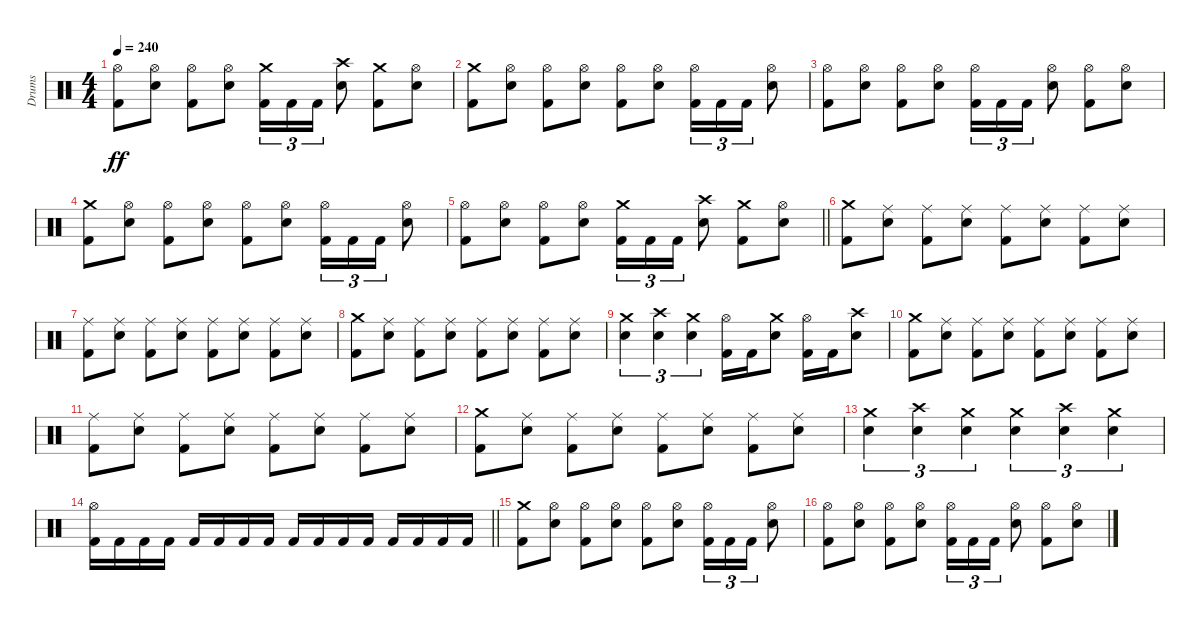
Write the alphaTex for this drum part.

\track ("Drums" "Drums") {instrument percussion}
\staff {score}
\articulation defaults
\ts (4 4)
\tempo 240
\clef neutral
\ks c
("Hi-Hat (open)" "Kick (hit) 2").8{dy ff} ("Hi-Hat (open)" "Snare (hit) 2").8 ("Hi-Hat (open)" "Kick (hit) 2").8 ("Hi-Hat (open)" "Snare (hit) 2").8 ("Crash medium (hit)" "Kick (hit) 2").16{tu (3 2)} "Kick (hit) 2".16{tu (3 2)} "Kick (hit) 2".16{tu (3 2)} ("Crash high (hit)" "Snare (hit) 2").8 ("Crash medium (hit)" "Kick (hit) 2").8 ("Hi-Hat (open)" "Snare (hit) 2").8 |
("Crash medium (hit)" "Kick (hit) 2").8 ("Hi-Hat (open)" "Snare (hit) 2").8 ("Hi-Hat (open)" "Kick (hit) 2").8 ("Hi-Hat (open)" "Snare (hit) 2").8 ("Hi-Hat (open)" "Kick (hit) 2").8 ("Hi-Hat (open)" "Snare (hit) 2").8 ("Hi-Hat (open)" "Kick (hit) 2").16{tu (3 2)} "Kick (hit) 2".16{tu (3 2)} "Kick (hit) 2".16{tu (3 2)} ("Hi-Hat (open)" "Snare (hit) 2").8 |
("Hi-Hat (open)" "Kick (hit) 2").8 ("Hi-Hat (open)" "Snare (hit) 2").8 ("Hi-Hat (open)" "Kick (hit) 2").8 ("Hi-Hat (open)" "Snare (hit) 2").8 ("Hi-Hat (open)" "Kick (hit) 2").16{tu (3 2)} "Kick (hit) 2".16{tu (3 2)} "Kick (hit) 2".16{tu (3 2)} ("Hi-Hat (open)" "Snare (hit) 2").8 ("Hi-Hat (open)" "Kick (hit) 2").8 ("Hi-Hat (open)" "Snare (hit) 2").8 |
("Crash medium (hit)" "Kick (hit) 2").8 ("Hi-Hat (open)" "Snare (hit) 2").8 ("Hi-Hat (open)" "Kick (hit) 2").8 ("Hi-Hat (open)" "Snare (hit) 2").8 ("Hi-Hat (open)" "Kick (hit) 2").8 ("Hi-Hat (open)" "Snare (hit) 2").8 ("Hi-Hat (open)" "Kick (hit) 2").16{tu (3 2)} "Kick (hit) 2".16{tu (3 2)} "Kick (hit) 2".16{tu (3 2)} ("Hi-Hat (open)" "Snare (hit) 2").8 |
\barLineRight lightlight
("Hi-Hat (open)" "Kick (hit) 2").8 ("Hi-Hat (open)" "Snare (hit) 2").8 ("Hi-Hat (open)" "Kick (hit) 2").8 ("Hi-Hat (open)" "Snare (hit) 2").8 ("Crash medium (hit)" "Kick (hit) 2").16{tu (3 2)} "Kick (hit) 2".16{tu (3 2)} "Kick (hit) 2".16{tu (3 2)} ("Crash high (hit)" "Snare (hit) 2").8 ("Crash medium (hit)" "Kick (hit) 2").8 ("Hi-Hat (open)" "Snare (hit) 2").8 |
("Crash medium (hit)" "Kick (hit) 2").8 ("Ride (middle)" "Snare (hit) 2").8 ("Ride (middle)" "Kick (hit) 2").8 ("Ride (middle)" "Snare (hit) 2").8 ("Ride (middle)" "Kick (hit) 2").8 ("Ride (middle)" "Snare (hit) 2").8 ("Ride (middle)" "Kick (hit) 2").8 ("Ride (middle)" "Snare (hit) 2").8 |
("Ride (middle)" "Kick (hit) 2").8 ("Ride (middle)" "Snare (hit) 2").8 ("Ride (middle)" "Kick (hit) 2").8 ("Ride (middle)" "Snare (hit) 2").8 ("Ride (middle)" "Kick (hit) 2").8 ("Ride (middle)" "Snare (hit) 2").8 ("Ride (middle)" "Kick (hit) 2").8 ("Ride (middle)" "Snare (hit) 2").8 |
("Crash medium (hit)" "Kick (hit) 2").8 ("Ride (middle)" "Snare (hit) 2").8 ("Ride (middle)" "Kick (hit) 2").8 ("Ride (middle)" "Snare (hit) 2").8 ("Ride (middle)" "Kick (hit) 2").8 ("Ride (middle)" "Snare (hit) 2").8 ("Ride (middle)" "Kick (hit) 2").8 ("Ride (middle)" "Snare (hit) 2").8 |
("Crash medium (hit)" "Snare (hit) 2").4{tu (3 2)} ("Crash high (hit)" "Snare (hit) 2").4{tu (3 2)} ("Crash medium (hit)" "Snare (hit) 2").4{tu (3 2)} ("Hi-Hat (open)" "Kick (hit) 2").16 "Kick (hit) 2".16 ("Crash medium (hit)" "Snare (hit) 2").8 ("Hi-Hat (open)" "Kick (hit) 2").16 "Kick (hit) 2".16 ("Crash high (hit)" "Snare (hit) 2").8 |
("Crash medium (hit)" "Kick (hit) 2").8 ("Ride (middle)" "Snare (hit) 2").8 ("Ride (middle)" "Kick (hit) 2").8 ("Ride (middle)" "Snare (hit) 2").8 ("Ride (middle)" "Kick (hit) 2").8 ("Ride (middle)" "Snare (hit) 2").8 ("Ride (middle)" "Kick (hit) 2").8 ("Ride (middle)" "Snare (hit) 2").8 |
("Ride (middle)" "Kick (hit) 2").8 ("Ride (middle)" "Snare (hit) 2").8 ("Ride (middle)" "Kick (hit) 2").8 ("Ride (middle)" "Snare (hit) 2").8 ("Ride (middle)" "Kick (hit) 2").8 ("Ride (middle)" "Snare (hit) 2").8 ("Ride (middle)" "Kick (hit) 2").8 ("Ride (middle)" "Snare (hit) 2").8 |
("Crash medium (hit)" "Kick (hit) 2").8 ("Ride (middle)" "Snare (hit) 2").8 ("Ride (middle)" "Kick (hit) 2").8 ("Ride (middle)" "Snare (hit) 2").8 ("Ride (middle)" "Kick (hit) 2").8 ("Ride (middle)" "Snare (hit) 2").8 ("Ride (middle)" "Kick (hit) 2").8 ("Ride (middle)" "Snare (hit) 2").8 |
("Crash medium (hit)" "Snare (hit) 2").4{tu (3 2)} ("Crash high (hit)" "Snare (hit) 2").4{tu (3 2)} ("Crash medium (hit)" "Snare (hit) 2").4{tu (3 2)} ("Crash medium (hit)" "Snare (hit) 2").4{tu (3 2)} ("Crash high (hit)" "Snare (hit) 2").4{tu (3 2)} ("Crash medium (hit)" "Snare (hit) 2").4{tu (3 2)} |
\barLineRight lightlight
("Hi-Hat (open)" "Kick (hit) 2").16 "Kick (hit) 2".16 "Kick (hit) 2".16 "Kick (hit) 2".16 "Kick (hit) 2".16 "Kick (hit) 2".16 "Kick (hit) 2".16 "Kick (hit) 2".16 "Kick (hit) 2".16 "Kick (hit) 2".16 "Kick (hit) 2".16 "Kick (hit) 2".16 "Kick (hit) 2".16 "Kick (hit) 2".16 "Kick (hit) 2".16 "Kick (hit) 2".16 |
("Crash medium (hit)" "Kick (hit) 2").8 ("Hi-Hat (open)" "Snare (hit) 2").8 ("Hi-Hat (open)" "Kick (hit) 2").8 ("Hi-Hat (open)" "Snare (hit) 2").8 ("Hi-Hat (open)" "Kick (hit) 2").8 ("Hi-Hat (open)" "Snare (hit) 2").8 ("Hi-Hat (open)" "Kick (hit) 2").16{tu (3 2)} "Kick (hit) 2".16{tu (3 2)} "Kick (hit) 2".16{tu (3 2)} ("Hi-Hat (open)" "Snare (hit) 2").8 |
("Hi-Hat (open)" "Kick (hit) 2").8 ("Hi-Hat (open)" "Snare (hit) 2").8 ("Hi-Hat (open)" "Kick (hit) 2").8 ("Hi-Hat (open)" "Snare (hit) 2").8 ("Hi-Hat (open)" "Kick (hit) 2").16{tu (3 2)} "Kick (hit) 2".16{tu (3 2)} "Kick (hit) 2".16{tu (3 2)} ("Hi-Hat (open)" "Snare (hit) 2").8 ("Hi-Hat (open)" "Kick (hit) 2").8 ("Hi-Hat (open)" "Snare (hit) 2").8
